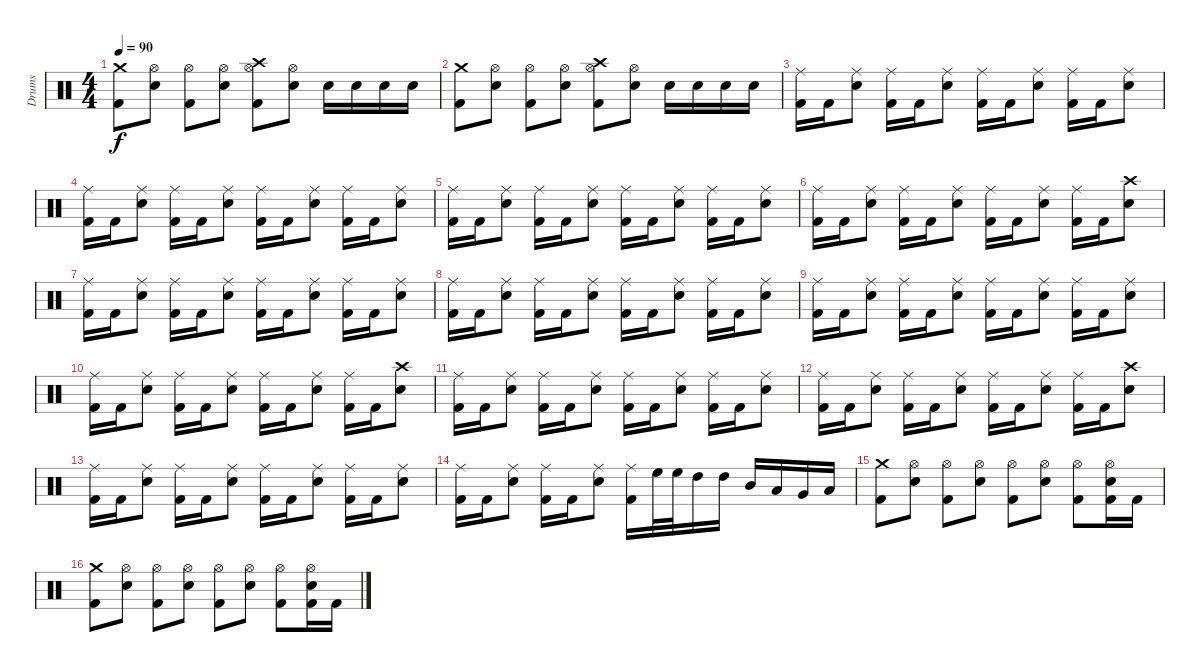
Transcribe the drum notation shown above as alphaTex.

\track ("Drums" "Drums") {instrument percussion}
\staff {score}
\articulation defaults
\ts (4 4)
\tempo 90
\clef neutral
\ks c
("Crash medium (hit)" "Kick (hit) 2").8{dy f} ("Hi-Hat (open)" "Electric Snare (hit)").8 ("Hi-Hat (open)" "Kick (hit) 2").8 ("Hi-Hat (open)" "Electric Snare (hit)").8 ("Crash high (hit)" "Hi-Hat (open)" "Kick (hit) 2").8 ("Hi-Hat (open)" "Electric Snare (hit)").8 "Electric Snare (hit)".16 "Electric Snare (hit)".16 "Electric Snare (hit)".16 "Electric Snare (hit)".16 |
("Crash medium (hit)" "Kick (hit) 2").8 ("Hi-Hat (open)" "Electric Snare (hit)").8 ("Hi-Hat (open)" "Kick (hit) 2").8 ("Hi-Hat (open)" "Electric Snare (hit)").8 ("Crash high (hit)" "Hi-Hat (open)" "Kick (hit) 2").8 ("Hi-Hat (open)" "Electric Snare (hit)").8 "Electric Snare (hit)".16 "Electric Snare (hit)".16 "Electric Snare (hit)".16 "Electric Snare (hit)".16 |
("Ride (middle)" "Kick (hit) 2").16 "Kick (hit) 2".16 ("Ride (middle)" "Electric Snare (hit)").8 ("Ride (middle)" "Kick (hit) 2").16 "Kick (hit) 2".16 ("Ride (middle)" "Electric Snare (hit)").8 ("Ride (middle)" "Kick (hit) 2").16 "Kick (hit) 2".16 ("Ride (middle)" "Electric Snare (hit)").8 ("Ride (middle)" "Kick (hit) 2").16 "Kick (hit) 2".16 ("Ride (middle)" "Electric Snare (hit)").8 |
("Ride (middle)" "Kick (hit) 2").16 "Kick (hit) 2".16 ("Ride (middle)" "Electric Snare (hit)").8 ("Ride (middle)" "Kick (hit) 2").16 "Kick (hit) 2".16 ("Ride (middle)" "Electric Snare (hit)").8 ("Ride (middle)" "Kick (hit) 2").16 "Kick (hit) 2".16 ("Ride (middle)" "Electric Snare (hit)").8 ("Ride (middle)" "Kick (hit) 2").16 "Kick (hit) 2".16 ("Ride (middle)" "Electric Snare (hit)").8 |
("Ride (middle)" "Kick (hit) 2").16 "Kick (hit) 2".16 ("Ride (middle)" "Electric Snare (hit)").8 ("Ride (middle)" "Kick (hit) 2").16 "Kick (hit) 2".16 ("Ride (middle)" "Electric Snare (hit)").8 ("Ride (middle)" "Kick (hit) 2").16 "Kick (hit) 2".16 ("Ride (middle)" "Electric Snare (hit)").8 ("Ride (middle)" "Kick (hit) 2").16 "Kick (hit) 2".16 ("Ride (middle)" "Electric Snare (hit)").8 |
("Ride (middle)" "Kick (hit) 2").16 "Kick (hit) 2".16 ("Ride (middle)" "Electric Snare (hit)").8 ("Ride (middle)" "Kick (hit) 2").16 "Kick (hit) 2".16 ("Ride (middle)" "Electric Snare (hit)").8 ("Ride (middle)" "Kick (hit) 2").16 "Kick (hit) 2".16 ("Ride (middle)" "Electric Snare (hit)").8 ("Ride (middle)" "Kick (hit) 2").16 "Kick (hit) 2".16 ("Crash high (hit)" "Electric Snare (hit)").8 |
("Ride (middle)" "Kick (hit) 2").16 "Kick (hit) 2".16 ("Ride (middle)" "Electric Snare (hit)").8 ("Ride (middle)" "Kick (hit) 2").16 "Kick (hit) 2".16 ("Ride (middle)" "Electric Snare (hit)").8 ("Ride (middle)" "Kick (hit) 2").16 "Kick (hit) 2".16 ("Ride (middle)" "Electric Snare (hit)").8 ("Ride (middle)" "Kick (hit) 2").16 "Kick (hit) 2".16 ("Ride (middle)" "Electric Snare (hit)").8 |
("Ride (middle)" "Kick (hit) 2").16 "Kick (hit) 2".16 ("Ride (middle)" "Electric Snare (hit)").8 ("Ride (middle)" "Kick (hit) 2").16 "Kick (hit) 2".16 ("Ride (middle)" "Electric Snare (hit)").8 ("Ride (middle)" "Kick (hit) 2").16 "Kick (hit) 2".16 ("Ride (middle)" "Electric Snare (hit)").8 ("Ride (middle)" "Kick (hit) 2").16 "Kick (hit) 2".16 ("Ride (middle)" "Electric Snare (hit)").8 |
("Ride (middle)" "Kick (hit) 2").16 "Kick (hit) 2".16 ("Ride (middle)" "Electric Snare (hit)").8 ("Ride (middle)" "Kick (hit) 2").16 "Kick (hit) 2".16 ("Ride (middle)" "Electric Snare (hit)").8 ("Ride (middle)" "Kick (hit) 2").16 "Kick (hit) 2".16 ("Ride (middle)" "Electric Snare (hit)").8 ("Ride (middle)" "Kick (hit) 2").16 "Kick (hit) 2".16 ("Ride (middle)" "Electric Snare (hit)").8 |
("Ride (middle)" "Kick (hit) 2").16 "Kick (hit) 2".16 ("Ride (middle)" "Electric Snare (hit)").8 ("Ride (middle)" "Kick (hit) 2").16 "Kick (hit) 2".16 ("Ride (middle)" "Electric Snare (hit)").8 ("Ride (middle)" "Kick (hit) 2").16 "Kick (hit) 2".16 ("Ride (middle)" "Electric Snare (hit)").8 ("Ride (middle)" "Kick (hit) 2").16 "Kick (hit) 2".16 ("Crash high (hit)" "Electric Snare (hit)").8 |
("Ride (middle)" "Kick (hit) 2").16 "Kick (hit) 2".16 ("Ride (middle)" "Electric Snare (hit)").8 ("Ride (middle)" "Kick (hit) 2").16 "Kick (hit) 2".16 ("Ride (middle)" "Electric Snare (hit)").8 ("Ride (middle)" "Kick (hit) 2").16 "Kick (hit) 2".16 ("Ride (middle)" "Electric Snare (hit)").8 ("Ride (middle)" "Kick (hit) 2").16 "Kick (hit) 2".16 ("Ride (middle)" "Electric Snare (hit)").8 |
("Ride (middle)" "Kick (hit) 2").16 "Kick (hit) 2".16 ("Ride (middle)" "Electric Snare (hit)").8 ("Ride (middle)" "Kick (hit) 2").16 "Kick (hit) 2".16 ("Ride (middle)" "Electric Snare (hit)").8 ("Ride (middle)" "Kick (hit) 2").16 "Kick (hit) 2".16 ("Ride (middle)" "Electric Snare (hit)").8 ("Ride (middle)" "Kick (hit) 2").16 "Kick (hit) 2".16 ("Crash high (hit)" "Electric Snare (hit)").8 |
("Ride (middle)" "Kick (hit) 2").16 "Kick (hit) 2".16 ("Ride (middle)" "Electric Snare (hit)").8 ("Ride (middle)" "Kick (hit) 2").16 "Kick (hit) 2".16 ("Ride (middle)" "Electric Snare (hit)").8 ("Ride (middle)" "Kick (hit) 2").16 "Kick (hit) 2".16 ("Ride (middle)" "Electric Snare (hit)").8 ("Ride (middle)" "Kick (hit) 2").16 "Kick (hit) 2".16 ("Ride (middle)" "Electric Snare (hit)").8 |
("Ride (middle)" "Kick (hit) 2").16 "Kick (hit) 2".16 ("Ride (middle)" "Electric Snare (hit)").8 ("Ride (middle)" "Kick (hit) 2").16 "Kick (hit) 2".16 ("Ride (middle)" "Electric Snare (hit)").8 ("Ride (middle)" "Kick (hit) 2").16 "High Floor Tom (hit)".32 "High Floor Tom (hit)".32 "High Tom (hit)".16 "High Tom (hit)".16 "Mid Tom (hit)".16 "Low Tom (hit)".16 "Very Low Tom (hit)".16 "Low Floor Tom (hit)".16 |
("Crash medium (hit)" "Kick (hit) 2").8 ("Hi-Hat (open)" "Electric Snare (hit)").8 ("Hi-Hat (open)" "Kick (hit) 2").8 ("Hi-Hat (open)" "Electric Snare (hit)").8 ("Hi-Hat (open)" "Kick (hit) 2").8 ("Hi-Hat (open)" "Electric Snare (hit)").8 ("Hi-Hat (open)" "Kick (hit) 2").8 ("Electric Snare (hit)" "Hi-Hat (open)" "Kick (hit) 2").16 "Kick (hit) 2".16 |
("Crash medium (hit)" "Kick (hit) 2").8 ("Hi-Hat (open)" "Electric Snare (hit)").8 ("Hi-Hat (open)" "Kick (hit) 2").8 ("Hi-Hat (open)" "Electric Snare (hit)").8 ("Hi-Hat (open)" "Kick (hit) 2").8 ("Hi-Hat (open)" "Electric Snare (hit)").8 ("Hi-Hat (open)" "Kick (hit) 2").8 ("Electric Snare (hit)" "Hi-Hat (open)" "Kick (hit) 2").16 "Kick (hit) 2".16
